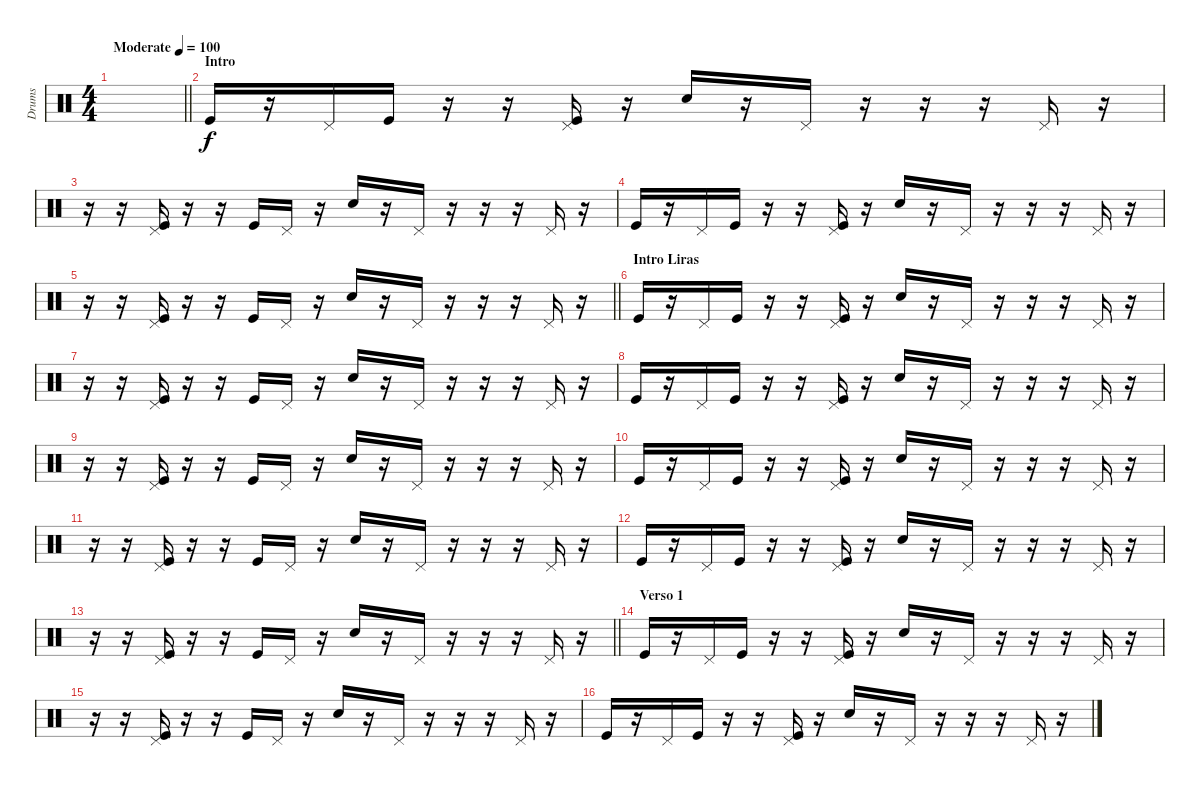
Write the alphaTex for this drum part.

\track ("Drums " "Drums ") {instrument percussion}
\staff {score}
\articulation defaults
\ts (4 4)
\tempo (100 "Moderate")
\clef neutral
\barLineRight lightlight
\ks c
|
\section ("" "Intro ")
"Kick (hit)".16 r.16 "Pedal Hi-Hat (hit)".16 "Kick (hit)".16 r.16 r.16 ("Pedal Hi-Hat (hit)" "Kick (hit)").16 r.16 "Snare (hit) 2".16 r.16 "Pedal Hi-Hat (hit)".16 r.16 r.16 r.16 "Pedal Hi-Hat (hit)".16 r.16 |
r.16 r.16 ("Pedal Hi-Hat (hit)" "Kick (hit)").16 r.16 r.16 "Kick (hit)".16 "Pedal Hi-Hat (hit)".16 r.16 "Snare (hit) 2".16 r.16 "Pedal Hi-Hat (hit)".16 r.16 r.16 r.16 "Pedal Hi-Hat (hit)".16 r.16 |
"Kick (hit)".16 r.16 "Pedal Hi-Hat (hit)".16 "Kick (hit)".16 r.16 r.16 ("Pedal Hi-Hat (hit)" "Kick (hit)").16 r.16 "Snare (hit) 2".16 r.16 "Pedal Hi-Hat (hit)".16 r.16 r.16 r.16 "Pedal Hi-Hat (hit)".16 r.16 |
\barLineRight lightlight
r.16 r.16 ("Pedal Hi-Hat (hit)" "Kick (hit)").16 r.16 r.16 "Kick (hit)".16 "Pedal Hi-Hat (hit)".16 r.16 "Snare (hit) 2".16 r.16 "Pedal Hi-Hat (hit)".16 r.16 r.16 r.16 "Pedal Hi-Hat (hit)".16 r.16 |
\section ("" "Intro Liras")
"Kick (hit)".16 r.16 "Pedal Hi-Hat (hit)".16 "Kick (hit)".16 r.16 r.16 ("Pedal Hi-Hat (hit)" "Kick (hit)").16 r.16 "Snare (hit) 2".16 r.16 "Pedal Hi-Hat (hit)".16 r.16 r.16 r.16 "Pedal Hi-Hat (hit)".16 r.16 |
r.16 r.16 ("Pedal Hi-Hat (hit)" "Kick (hit)").16 r.16 r.16 "Kick (hit)".16 "Pedal Hi-Hat (hit)".16 r.16 "Snare (hit) 2".16 r.16 "Pedal Hi-Hat (hit)".16 r.16 r.16 r.16 "Pedal Hi-Hat (hit)".16 r.16 |
"Kick (hit)".16 r.16 "Pedal Hi-Hat (hit)".16 "Kick (hit)".16 r.16 r.16 ("Pedal Hi-Hat (hit)" "Kick (hit)").16 r.16 "Snare (hit) 2".16 r.16 "Pedal Hi-Hat (hit)".16 r.16 r.16 r.16 "Pedal Hi-Hat (hit)".16 r.16 |
r.16 r.16 ("Pedal Hi-Hat (hit)" "Kick (hit)").16 r.16 r.16 "Kick (hit)".16 "Pedal Hi-Hat (hit)".16 r.16 "Snare (hit) 2".16 r.16 "Pedal Hi-Hat (hit)".16 r.16 r.16 r.16 "Pedal Hi-Hat (hit)".16 r.16 |
"Kick (hit)".16 r.16 "Pedal Hi-Hat (hit)".16 "Kick (hit)".16 r.16 r.16 ("Pedal Hi-Hat (hit)" "Kick (hit)").16 r.16 "Snare (hit) 2".16 r.16 "Pedal Hi-Hat (hit)".16 r.16 r.16 r.16 "Pedal Hi-Hat (hit)".16 r.16 |
r.16 r.16 ("Pedal Hi-Hat (hit)" "Kick (hit)").16 r.16 r.16 "Kick (hit)".16 "Pedal Hi-Hat (hit)".16 r.16 "Snare (hit) 2".16 r.16 "Pedal Hi-Hat (hit)".16 r.16 r.16 r.16 "Pedal Hi-Hat (hit)".16 r.16 |
"Kick (hit)".16 r.16 "Pedal Hi-Hat (hit)".16 "Kick (hit)".16 r.16 r.16 ("Pedal Hi-Hat (hit)" "Kick (hit)").16 r.16 "Snare (hit) 2".16 r.16 "Pedal Hi-Hat (hit)".16 r.16 r.16 r.16 "Pedal Hi-Hat (hit)".16 r.16 |
\barLineRight lightlight
r.16 r.16 ("Pedal Hi-Hat (hit)" "Kick (hit)").16 r.16 r.16 "Kick (hit)".16 "Pedal Hi-Hat (hit)".16 r.16 "Snare (hit) 2".16 r.16 "Pedal Hi-Hat (hit)".16 r.16 r.16 r.16 "Pedal Hi-Hat (hit)".16 r.16 |
\section ("" "Verso 1")
"Kick (hit)".16 r.16 "Pedal Hi-Hat (hit)".16 "Kick (hit)".16 r.16 r.16 ("Pedal Hi-Hat (hit)" "Kick (hit)").16 r.16 "Snare (hit) 2".16 r.16 "Pedal Hi-Hat (hit)".16 r.16 r.16 r.16 "Pedal Hi-Hat (hit)".16 r.16 |
r.16 r.16 ("Pedal Hi-Hat (hit)" "Kick (hit)").16 r.16 r.16 "Kick (hit)".16 "Pedal Hi-Hat (hit)".16 r.16 "Snare (hit) 2".16 r.16 "Pedal Hi-Hat (hit)".16 r.16 r.16 r.16 "Pedal Hi-Hat (hit)".16 r.16 |
"Kick (hit)".16 r.16 "Pedal Hi-Hat (hit)".16 "Kick (hit)".16 r.16 r.16 ("Pedal Hi-Hat (hit)" "Kick (hit)").16 r.16 "Snare (hit) 2".16 r.16 "Pedal Hi-Hat (hit)".16 r.16 r.16 r.16 "Pedal Hi-Hat (hit)".16 r.16
